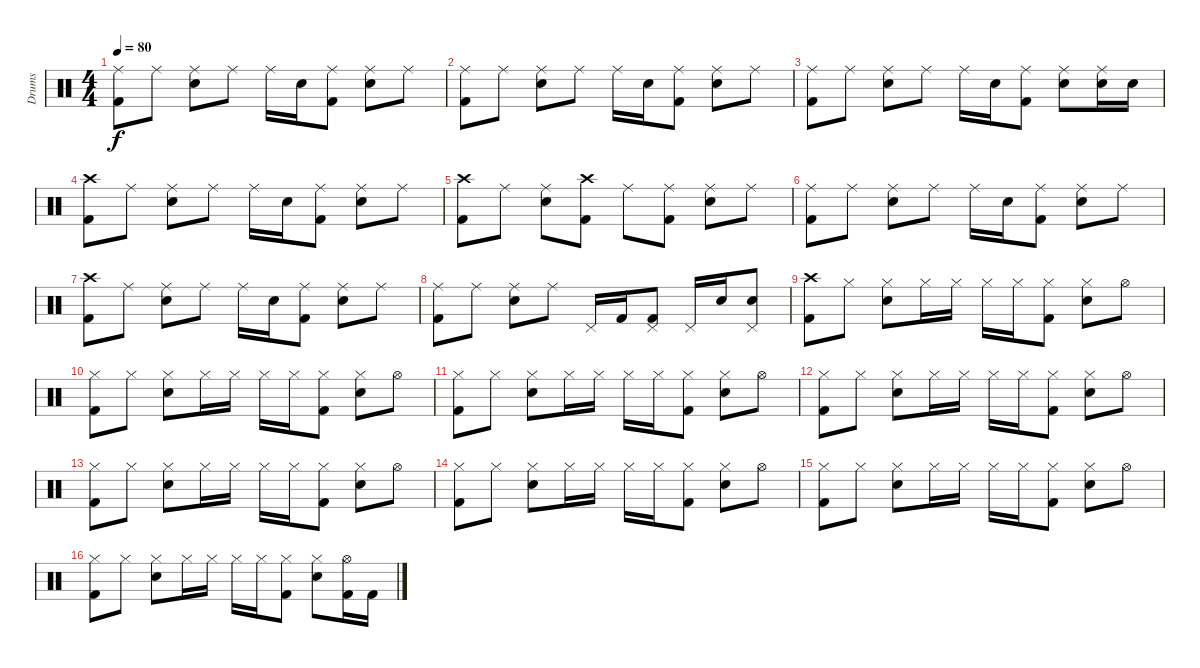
\track ("Drums" "Drums") {instrument percussion}
\staff {score}
\articulation defaults
\ts (4 4)
\tempo 80
\clef neutral
\ks c
("Ride (middle)" "Kick (hit) 2").8{dy f} "Ride (middle)".8 ("Ride (middle)" "Electric Snare (hit)").8 "Ride (middle)".8 "Ride (middle)".16 "Electric Snare (hit)".16 ("Ride (middle)" "Kick (hit) 2").8 ("Ride (middle)" "Electric Snare (hit)").8 "Ride (middle)".8 |
("Ride (middle)" "Kick (hit) 2").8 "Ride (middle)".8 ("Ride (middle)" "Electric Snare (hit)").8 "Ride (middle)".8 "Ride (middle)".16 "Electric Snare (hit)".16 ("Ride (middle)" "Kick (hit) 2").8 ("Ride (middle)" "Electric Snare (hit)").8 "Ride (middle)".8 |
("Ride (middle)" "Kick (hit) 2").8 "Ride (middle)".8 ("Ride (middle)" "Electric Snare (hit)").8 "Ride (middle)".8 "Ride (middle)".16 "Electric Snare (hit)".16 ("Ride (middle)" "Kick (hit) 2").8 ("Ride (middle)" "Electric Snare (hit)").8 ("Ride (middle)" "Electric Snare (hit)").16 "Electric Snare (hit)".16 |
("Crash high (hit)" "Kick (hit) 2").8 "Ride (middle)".8 ("Ride (middle)" "Electric Snare (hit)").8 "Ride (middle)".8 "Ride (middle)".16 "Electric Snare (hit)".16 ("Ride (middle)" "Kick (hit) 2").8 ("Ride (middle)" "Electric Snare (hit)").8 "Ride (middle)".8 |
("Crash high (hit)" "Kick (hit) 2").8 "Ride (middle)".8 ("Ride (middle)" "Electric Snare (hit)").8 ("Crash high (hit)" "Kick (hit) 2").8 "Ride (middle)".8 ("Ride (middle)" "Kick (hit) 2").8 ("Ride (middle)" "Electric Snare (hit)").8 "Ride (middle)".8 |
("Ride (middle)" "Kick (hit) 2").8 "Ride (middle)".8 ("Ride (middle)" "Electric Snare (hit)").8 "Ride (middle)".8 "Ride (middle)".16 "Electric Snare (hit)".16 ("Ride (middle)" "Kick (hit) 2").8 ("Ride (middle)" "Electric Snare (hit)").8 "Ride (middle)".8 |
("Crash high (hit)" "Kick (hit) 2").8 "Ride (middle)".8 ("Ride (middle)" "Electric Snare (hit)").8 "Ride (middle)".8 "Ride (middle)".16 "Electric Snare (hit)".16 ("Ride (middle)" "Kick (hit) 2").8 ("Ride (middle)" "Electric Snare (hit)").8 "Ride (middle)".8 |
("Ride (middle)" "Kick (hit) 2").8 "Ride (middle)".8 ("Ride (middle)" "Electric Snare (hit)").8 "Ride (middle)".8 "Pedal Hi-Hat (hit)".16 "Kick (hit) 2".16 ("Pedal Hi-Hat (hit)" "Kick (hit) 2").8 "Pedal Hi-Hat (hit)".16 "Electric Snare (hit)".16 ("Pedal Hi-Hat (hit)" "Electric Snare (hit)").8 |
("Crash high (hit)" "Kick (hit) 2").8 "Hi-Hat (closed)".8 ("Hi-Hat (closed)" "Electric Snare (hit)").8 "Hi-Hat (closed)".16 "Hi-Hat (closed)".16 "Hi-Hat (closed)".16 "Hi-Hat (closed)".16 ("Hi-Hat (closed)" "Kick (hit) 2").8 ("Hi-Hat (closed)" "Electric Snare (hit)").8 "Hi-Hat (open)".8 |
("Hi-Hat (closed)" "Kick (hit) 2").8 "Hi-Hat (closed)".8 ("Hi-Hat (closed)" "Electric Snare (hit)").8 "Hi-Hat (closed)".16 "Hi-Hat (closed)".16 "Hi-Hat (closed)".16 "Hi-Hat (closed)".16 ("Hi-Hat (closed)" "Kick (hit) 2").8 ("Hi-Hat (closed)" "Electric Snare (hit)").8 "Hi-Hat (open)".8 |
("Hi-Hat (closed)" "Kick (hit) 2").8 "Hi-Hat (closed)".8 ("Hi-Hat (closed)" "Electric Snare (hit)").8 "Hi-Hat (closed)".16 "Hi-Hat (closed)".16 "Hi-Hat (closed)".16 "Hi-Hat (closed)".16 ("Hi-Hat (closed)" "Kick (hit) 2").8 ("Hi-Hat (closed)" "Electric Snare (hit)").8 "Hi-Hat (open)".8 |
("Hi-Hat (closed)" "Kick (hit) 2").8 "Hi-Hat (closed)".8 ("Hi-Hat (closed)" "Electric Snare (hit)").8 "Hi-Hat (closed)".16 "Hi-Hat (closed)".16 "Hi-Hat (closed)".16 "Hi-Hat (closed)".16 ("Hi-Hat (closed)" "Kick (hit) 2").8 ("Hi-Hat (closed)" "Electric Snare (hit)").8 "Hi-Hat (open)".8 |
("Hi-Hat (closed)" "Kick (hit) 2").8 "Hi-Hat (closed)".8 ("Hi-Hat (closed)" "Electric Snare (hit)").8 "Hi-Hat (closed)".16 "Hi-Hat (closed)".16 "Hi-Hat (closed)".16 "Hi-Hat (closed)".16 ("Hi-Hat (closed)" "Kick (hit) 2").8 ("Hi-Hat (closed)" "Electric Snare (hit)").8 "Hi-Hat (open)".8 |
("Hi-Hat (closed)" "Kick (hit) 2").8 "Hi-Hat (closed)".8 ("Hi-Hat (closed)" "Electric Snare (hit)").8 "Hi-Hat (closed)".16 "Hi-Hat (closed)".16 "Hi-Hat (closed)".16 "Hi-Hat (closed)".16 ("Hi-Hat (closed)" "Kick (hit) 2").8 ("Hi-Hat (closed)" "Electric Snare (hit)").8 "Hi-Hat (open)".8 |
("Hi-Hat (closed)" "Kick (hit) 2").8 "Hi-Hat (closed)".8 ("Hi-Hat (closed)" "Electric Snare (hit)").8 "Hi-Hat (closed)".16 "Hi-Hat (closed)".16 "Hi-Hat (closed)".16 "Hi-Hat (closed)".16 ("Hi-Hat (closed)" "Kick (hit) 2").8 ("Hi-Hat (closed)" "Electric Snare (hit)").8 "Hi-Hat (open)".8 |
("Hi-Hat (closed)" "Kick (hit) 2").8 "Hi-Hat (closed)".8 ("Hi-Hat (closed)" "Electric Snare (hit)").8 "Hi-Hat (closed)".16 "Hi-Hat (closed)".16 "Hi-Hat (closed)".16 "Hi-Hat (closed)".16 ("Hi-Hat (closed)" "Kick (hit) 2").8 ("Hi-Hat (closed)" "Electric Snare (hit)").8 ("Hi-Hat (open)" "Kick (hit) 2").16 "Kick (hit) 2".16
